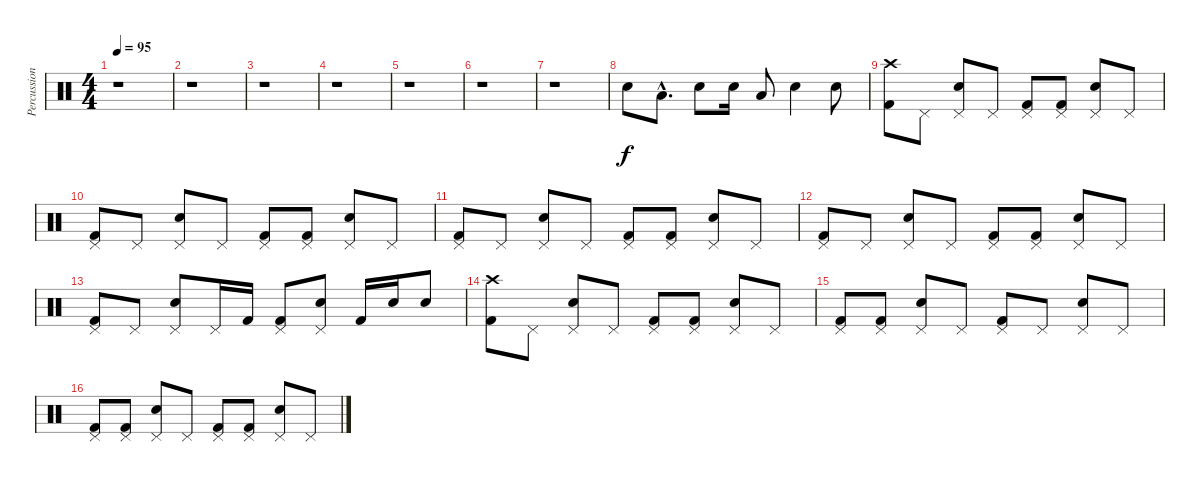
\track ("Percussions" "Percussion") {instrument percussion}
\staff {score}
\articulation defaults
\ts (4 4)
\tempo 95
\clef neutral
\ks c
r.1{dy f} |
r.1 |
r.1 |
r.1 |
r.1 |
r.1 |
r.1 |
"Electric Snare (hit)".8 "Low Tom (hit)"{hac}.8{d} "Electric Snare (hit)".8 "Electric Snare (hit)".16 "Low Tom (hit)".8 "Electric Snare (hit)".4 "Electric Snare (hit)".8 |
("Crash high (hit)" "Kick (hit) 2").8 "Pedal Hi-Hat (hit)".8 ("Pedal Hi-Hat (hit)" "Electric Snare (hit)").8 "Pedal Hi-Hat (hit)".8 ("Pedal Hi-Hat (hit)" "Kick (hit) 2").8 ("Pedal Hi-Hat (hit)" "Kick (hit) 2").8 ("Pedal Hi-Hat (hit)" "Electric Snare (hit)").8 "Pedal Hi-Hat (hit)".8 |
("Pedal Hi-Hat (hit)" "Kick (hit) 2").8 "Pedal Hi-Hat (hit)".8 ("Pedal Hi-Hat (hit)" "Electric Snare (hit)").8 "Pedal Hi-Hat (hit)".8 ("Pedal Hi-Hat (hit)" "Kick (hit) 2").8 ("Pedal Hi-Hat (hit)" "Kick (hit) 2").8 ("Pedal Hi-Hat (hit)" "Electric Snare (hit)").8 "Pedal Hi-Hat (hit)".8 |
("Pedal Hi-Hat (hit)" "Kick (hit) 2").8 "Pedal Hi-Hat (hit)".8 ("Pedal Hi-Hat (hit)" "Electric Snare (hit)").8 "Pedal Hi-Hat (hit)".8 ("Pedal Hi-Hat (hit)" "Kick (hit) 2").8 ("Pedal Hi-Hat (hit)" "Kick (hit) 2").8 ("Pedal Hi-Hat (hit)" "Electric Snare (hit)").8 "Pedal Hi-Hat (hit)".8 |
("Pedal Hi-Hat (hit)" "Kick (hit) 2").8 "Pedal Hi-Hat (hit)".8 ("Pedal Hi-Hat (hit)" "Electric Snare (hit)").8 "Pedal Hi-Hat (hit)".8 ("Pedal Hi-Hat (hit)" "Kick (hit) 2").8 ("Pedal Hi-Hat (hit)" "Kick (hit) 2").8 ("Pedal Hi-Hat (hit)" "Electric Snare (hit)").8 "Pedal Hi-Hat (hit)".8 |
("Pedal Hi-Hat (hit)" "Kick (hit) 2").8 "Pedal Hi-Hat (hit)".8 ("Pedal Hi-Hat (hit)" "Electric Snare (hit)").8 "Pedal Hi-Hat (hit)".16 "Kick (hit) 2".16 ("Pedal Hi-Hat (hit)" "Kick (hit) 2").8 ("Pedal Hi-Hat (hit)" "Electric Snare (hit)").8 "Kick (hit) 2".16 "Electric Snare (hit)".16 "Electric Snare (hit)".8 |
("Crash high (hit)" "Kick (hit) 2").8 "Pedal Hi-Hat (hit)".8 ("Pedal Hi-Hat (hit)" "Electric Snare (hit)").8 "Pedal Hi-Hat (hit)".8 ("Pedal Hi-Hat (hit)" "Kick (hit) 2").8 ("Pedal Hi-Hat (hit)" "Kick (hit) 2").8 ("Pedal Hi-Hat (hit)" "Electric Snare (hit)").8 "Pedal Hi-Hat (hit)".8 |
("Pedal Hi-Hat (hit)" "Kick (hit) 2").8 ("Pedal Hi-Hat (hit)" "Kick (hit) 2").8 ("Pedal Hi-Hat (hit)" "Electric Snare (hit)").8 "Pedal Hi-Hat (hit)".8 ("Pedal Hi-Hat (hit)" "Kick (hit) 2").8 "Pedal Hi-Hat (hit)".8 ("Pedal Hi-Hat (hit)" "Electric Snare (hit)").8 "Pedal Hi-Hat (hit)".8 |
("Pedal Hi-Hat (hit)" "Kick (hit) 2").8 ("Pedal Hi-Hat (hit)" "Kick (hit) 2").8 ("Pedal Hi-Hat (hit)" "Electric Snare (hit)").8 "Pedal Hi-Hat (hit)".8 ("Pedal Hi-Hat (hit)" "Kick (hit) 2").8 ("Pedal Hi-Hat (hit)" "Kick (hit) 2").8 ("Pedal Hi-Hat (hit)" "Electric Snare (hit)").8 "Pedal Hi-Hat (hit)".8
